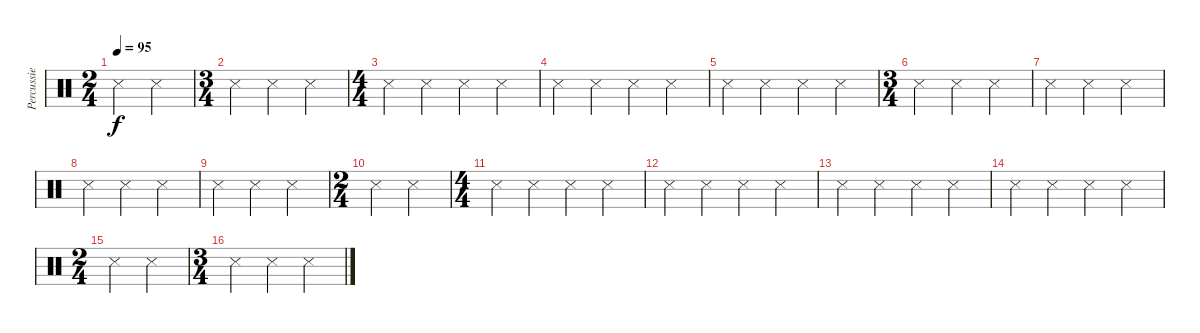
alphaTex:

\track ("Percussie" "Percussie") {instrument percussion}
\staff {score}
\articulation defaults
\ts (2 4)
\tempo 95
\clef neutral
\ks c "Snare (side stick) 3".4{dy f} "Snare (side stick) 3".4
|
\ts (3 4)
"Snare (side stick) 3".4 "Snare (side stick) 3".4 "Snare (side stick) 3".4 |
\ts (4 4)
"Snare (side stick) 3".4 "Snare (side stick) 3".4 "Snare (side stick) 3".4 "Snare (side stick) 3".4 |
"Snare (side stick) 3".4 "Snare (side stick) 3".4 "Snare (side stick) 3".4 "Snare (side stick) 3".4 |
"Snare (side stick) 3".4 "Snare (side stick) 3".4 "Snare (side stick) 3".4 "Snare (side stick) 3".4 |
\ts (3 4)
"Snare (side stick) 3".4 "Snare (side stick) 3".4 "Snare (side stick) 3".4 |
"Snare (side stick) 3".4 "Snare (side stick) 3".4 "Snare (side stick) 3".4 |
"Snare (side stick) 3".4 "Snare (side stick) 3".4 "Snare (side stick) 3".4 |
"Snare (side stick) 3".4 "Snare (side stick) 3".4 "Snare (side stick) 3".4 |
\ts (2 4)
"Snare (side stick) 3".4 "Snare (side stick) 3".4 |
\ts (4 4)
"Snare (side stick) 3".4 "Snare (side stick) 3".4 "Snare (side stick) 3".4 "Snare (side stick) 3".4 |
"Snare (side stick) 3".4 "Snare (side stick) 3".4 "Snare (side stick) 3".4 "Snare (side stick) 3".4 |
"Snare (side stick) 3".4 "Snare (side stick) 3".4 "Snare (side stick) 3".4 "Snare (side stick) 3".4 |
"Snare (side stick) 3".4 "Snare (side stick) 3".4 "Snare (side stick) 3".4 "Snare (side stick) 3".4 |
\ts (2 4)
"Snare (side stick) 3".4 "Snare (side stick) 3".4 |
\ts (3 4)
"Snare (side stick) 3".4 "Snare (side stick) 3".4 "Snare (side stick) 3".4
